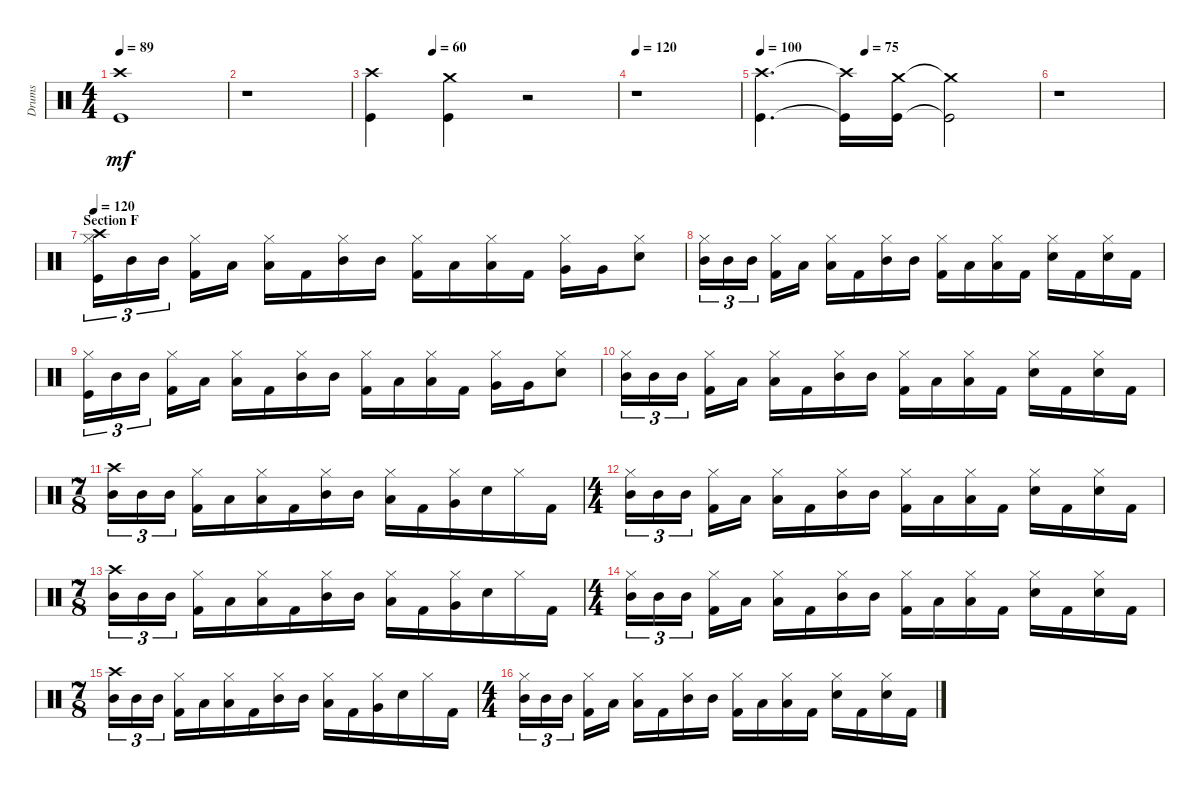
\track ("Drums" "Drums") {instrument percussion}
\staff {score}
\articulation defaults
\ts (4 4)
\tempo 89
\clef neutral
\ks aminor
("Kick (hit)" "Crash high (hit)").1{dy mf} |
r.1 |
\tempo (60 0.25)
("Crash high (hit)" "Kick (hit)").4 ("Crash medium (hit)" "Kick (hit)").4 r.2 |
\tempo 120
r.1 |
\tempo 100
\tempo (75 0.375)
("Kick (hit)" "Crash high (hit)").4{d} ("Kick (hit)"{t} "Crash high (hit)"{t}).16 ("Kick (hit)" "Crash medium (hit)").16 ("Kick (hit)"{t} "Crash medium (hit)"{t}).2 |
r.1 |
\section ("" "Section F")
\tempo 120
("Hi-Hat (closed)" "Kick (hit)" "Crash high (hit)").16{tu (3 2)} "Mid Tom (hit)".16{tu (3 2)} "Mid Tom (hit)".16{tu (3 2)} ("Hi-Hat (closed)" "Kick (hit) 2").16 "Low Tom (hit)".16 ("Hi-Hat (closed)" "Low Tom (hit)").16 "Kick (hit) 2".16 ("Hi-Hat (closed)" "Mid Tom (hit)").16 "Mid Tom (hit)".16 ("Kick (hit) 2" "Hi-Hat (closed)").16 "Low Tom (hit)".16 ("Hi-Hat (closed)" "Low Tom (hit)").16 "Kick (hit) 2".16 ("Hi-Hat (closed)" "Very Low Tom (hit)").16 "Very Low Tom (hit)".16 ("Hi-Hat (closed)" "Snare (hit) 2").8 |
("Mid Tom (hit)" "Hi-Hat (closed)").16{tu (3 2)} "Mid Tom (hit)".16{tu (3 2)} "Mid Tom (hit)".16{tu (3 2)} ("Hi-Hat (closed)" "Kick (hit) 2").16 "Low Tom (hit)".16 ("Low Tom (hit)" "Hi-Hat (closed)").16 "Kick (hit) 2".16 ("Mid Tom (hit)" "Hi-Hat (closed)").16 "Mid Tom (hit)".16 ("Kick (hit) 2" "Hi-Hat (closed)").16 "Low Tom (hit)".16 ("Hi-Hat (closed)" "Low Tom (hit)").16 "Kick (hit) 2".16 ("Snare (hit) 2" "Hi-Hat (closed)").16 "Kick (hit) 2".16 ("Hi-Hat (closed)" "Snare (hit) 2").16 "Kick (hit) 2".16 |
("Kick (hit)" "Hi-Hat (closed)").16{tu (3 2)} "Mid Tom (hit)".16{tu (3 2)} "Mid Tom (hit)".16{tu (3 2)} ("Hi-Hat (closed)" "Kick (hit) 2").16 "Low Tom (hit)".16 ("Low Tom (hit)" "Hi-Hat (closed)").16 "Kick (hit) 2".16 ("Mid Tom (hit)" "Hi-Hat (closed)").16 "Mid Tom (hit)".16 ("Hi-Hat (closed)" "Kick (hit) 2").16 "Low Tom (hit)".16 ("Hi-Hat (closed)" "Low Tom (hit)").16 "Kick (hit) 2".16 ("Hi-Hat (closed)" "Very Low Tom (hit)").16 "Very Low Tom (hit)".16 ("Hi-Hat (closed)" "Snare (hit) 2").8 |
("Mid Tom (hit)" "Hi-Hat (closed)").16{tu (3 2)} "Mid Tom (hit)".16{tu (3 2)} "Mid Tom (hit)".16{tu (3 2)} ("Kick (hit) 2" "Hi-Hat (closed)").16 "Low Tom (hit)".16 ("Hi-Hat (closed)" "Low Tom (hit)").16 "Kick (hit) 2".16 ("Mid Tom (hit)" "Hi-Hat (closed)").16 "Mid Tom (hit)".16 ("Kick (hit) 2" "Hi-Hat (closed)").16 "Low Tom (hit)".16 ("Low Tom (hit)" "Hi-Hat (closed)").16 "Kick (hit) 2".16 ("Snare (hit) 2" "Hi-Hat (closed)").16 "Kick (hit) 2".16 ("Snare (hit) 2" "Hi-Hat (closed)").16 "Kick (hit) 2".16 |
\ts (7 8)
("Crash high (hit)" "Mid Tom (hit)").16{tu (3 2)} "Mid Tom (hit)".16{tu (3 2)} "Mid Tom (hit)".16{tu (3 2)} ("Hi-Hat (closed)" "Kick (hit) 2").16 "Low Tom (hit)".16 ("Low Tom (hit)" "Hi-Hat (closed)").16 "Kick (hit) 2".16 ("Hi-Hat (closed)" "Mid Tom (hit)").16 "Mid Tom (hit)".16 ("Low Tom (hit)" "Hi-Hat (closed)").16 "Kick (hit) 2".16 ("Hi-Hat (closed)" "Very Low Tom (hit)").16 "Snare (hit) 2".16 "Hi-Hat (closed)".16 "Kick (hit) 2".16 |
\ts (4 4)
("Mid Tom (hit)" "Hi-Hat (closed)").16{tu (3 2)} "Mid Tom (hit)".16{tu (3 2)} "Mid Tom (hit)".16{tu (3 2)} ("Kick (hit) 2" "Hi-Hat (closed)").16 "Low Tom (hit)".16 ("Hi-Hat (closed)" "Low Tom (hit)").16 "Kick (hit) 2".16 ("Mid Tom (hit)" "Hi-Hat (closed)").16 "Mid Tom (hit)".16 ("Hi-Hat (closed)" "Kick (hit) 2").16 "Low Tom (hit)".16 ("Hi-Hat (closed)" "Low Tom (hit)").16 "Kick (hit) 2".16 ("Hi-Hat (closed)" "Snare (hit) 2").16 "Kick (hit) 2".16 ("Hi-Hat (closed)" "Snare (hit) 2").16 "Kick (hit) 2".16 |
\ts (7 8)
("Crash high (hit)" "Mid Tom (hit)").16{tu (3 2)} "Mid Tom (hit)".16{tu (3 2)} "Mid Tom (hit)".16{tu (3 2)} ("Kick (hit) 2" "Hi-Hat (closed)").16 "Low Tom (hit)".16 ("Low Tom (hit)" "Hi-Hat (closed)").16 "Kick (hit) 2".16 ("Mid Tom (hit)" "Hi-Hat (closed)").16 "Mid Tom (hit)".16 ("Low Tom (hit)" "Hi-Hat (closed)").16 "Kick (hit) 2".16 ("Hi-Hat (closed)" "Very Low Tom (hit)").16 "Snare (hit) 2".16 "Hi-Hat (closed)".16 "Kick (hit) 2".16 |
\ts (4 4)
("Hi-Hat (closed)" "Mid Tom (hit)").16{tu (3 2)} "Mid Tom (hit)".16{tu (3 2)} "Mid Tom (hit)".16{tu (3 2)} ("Kick (hit) 2" "Hi-Hat (closed)").16 "Low Tom (hit)".16 ("Low Tom (hit)" "Hi-Hat (closed)").16 "Kick (hit) 2".16 ("Mid Tom (hit)" "Hi-Hat (closed)").16 "Mid Tom (hit)".16 ("Hi-Hat (closed)" "Kick (hit) 2").16 "Low Tom (hit)".16 ("Low Tom (hit)" "Hi-Hat (closed)").16 "Kick (hit) 2".16 ("Snare (hit) 2" "Hi-Hat (closed)").16 "Kick (hit) 2".16 ("Snare (hit) 2" "Hi-Hat (closed)").16 "Kick (hit) 2".16 |
\ts (7 8)
("Crash high (hit)" "Mid Tom (hit)").16{tu (3 2)} "Mid Tom (hit)".16{tu (3 2)} "Mid Tom (hit)".16{tu (3 2)} ("Kick (hit) 2" "Hi-Hat (closed)").16 "Low Tom (hit)".16 ("Low Tom (hit)" "Hi-Hat (closed)").16 "Kick (hit) 2".16 ("Mid Tom (hit)" "Hi-Hat (closed)").16 "Mid Tom (hit)".16 ("Hi-Hat (closed)" "Low Tom (hit)").16 "Kick (hit) 2".16 ("Hi-Hat (closed)" "Very Low Tom (hit)").16 "Snare (hit) 2".16 "Hi-Hat (closed)".16 "Kick (hit) 2".16 |
\ts (4 4)
("Mid Tom (hit)" "Hi-Hat (closed)").16{tu (3 2)} "Mid Tom (hit)".16{tu (3 2)} "Mid Tom (hit)".16{tu (3 2)} ("Hi-Hat (closed)" "Kick (hit) 2").16 "Low Tom (hit)".16 ("Low Tom (hit)" "Hi-Hat (closed)").16 "Kick (hit) 2".16 ("Hi-Hat (closed)" "Mid Tom (hit)").16 "Mid Tom (hit)".16 ("Hi-Hat (closed)" "Kick (hit) 2").16 "Low Tom (hit)".16 ("Hi-Hat (closed)" "Low Tom (hit)").16 "Kick (hit) 2".16 ("Snare (hit) 2" "Hi-Hat (closed)").16 "Kick (hit) 2".16 ("Snare (hit) 2" "Hi-Hat (closed)").16 "Kick (hit) 2".16
